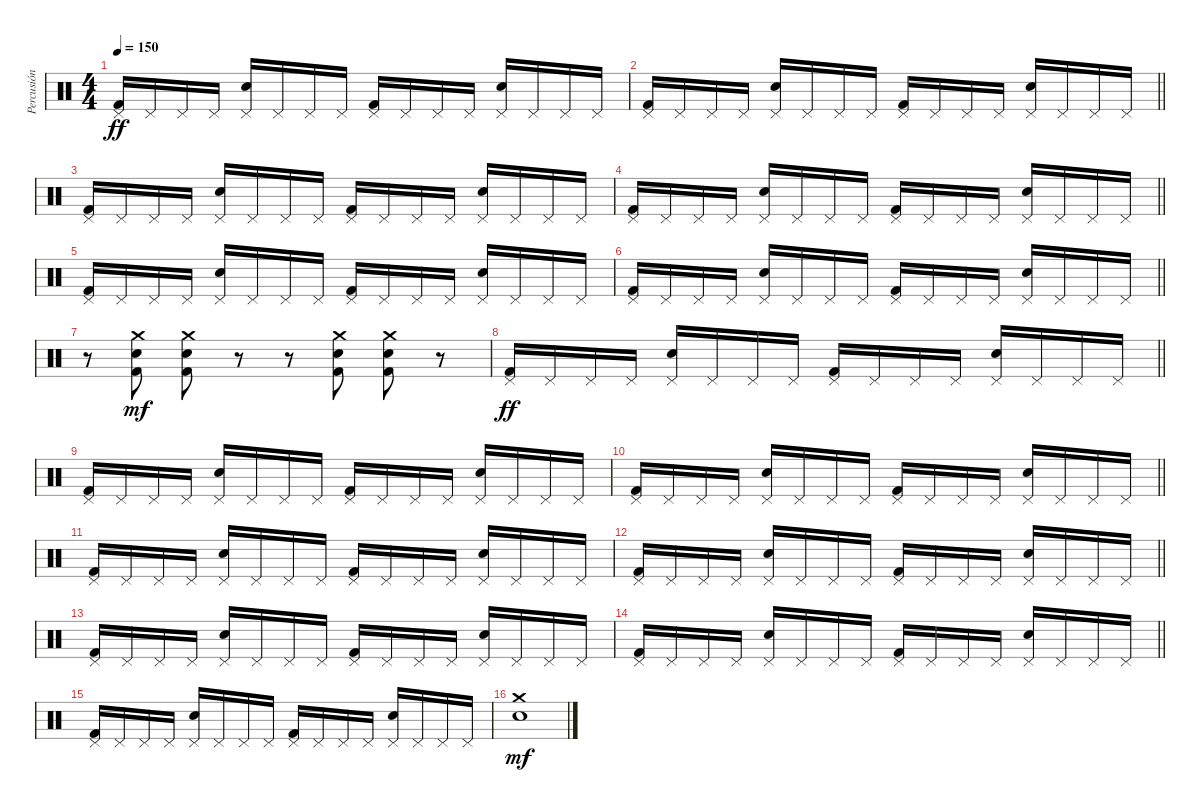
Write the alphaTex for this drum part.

\track ("Percusión" "Percusión") {instrument percussion}
\staff {score}
\articulation defaults
\ts (4 4)
\tempo 150
\clef neutral
\ks c
("Pedal Hi-Hat (hit)" "Kick (hit) 2").16{dy ff} "Pedal Hi-Hat (hit)".16 "Pedal Hi-Hat (hit)".16 "Pedal Hi-Hat (hit)".16 ("Pedal Hi-Hat (hit)" "Electric Snare (hit)").16 "Pedal Hi-Hat (hit)".16 "Pedal Hi-Hat (hit)".16 "Pedal Hi-Hat (hit)".16 ("Pedal Hi-Hat (hit)" "Kick (hit) 2").16 "Pedal Hi-Hat (hit)".16 "Pedal Hi-Hat (hit)".16 "Pedal Hi-Hat (hit)".16 ("Pedal Hi-Hat (hit)" "Electric Snare (hit)").16 "Pedal Hi-Hat (hit)".16 "Pedal Hi-Hat (hit)".16 "Pedal Hi-Hat (hit)".16 |
\barLineRight lightlight
("Pedal Hi-Hat (hit)" "Kick (hit) 2").16 "Pedal Hi-Hat (hit)".16 "Pedal Hi-Hat (hit)".16 "Pedal Hi-Hat (hit)".16 ("Pedal Hi-Hat (hit)" "Electric Snare (hit)").16 "Pedal Hi-Hat (hit)".16 "Pedal Hi-Hat (hit)".16 "Pedal Hi-Hat (hit)".16 ("Pedal Hi-Hat (hit)" "Kick (hit) 2").16 "Pedal Hi-Hat (hit)".16 "Pedal Hi-Hat (hit)".16 "Pedal Hi-Hat (hit)".16 ("Pedal Hi-Hat (hit)" "Electric Snare (hit)").16 "Pedal Hi-Hat (hit)".16 "Pedal Hi-Hat (hit)".16 "Pedal Hi-Hat (hit)".16 |
("Pedal Hi-Hat (hit)" "Kick (hit) 2").16 "Pedal Hi-Hat (hit)".16 "Pedal Hi-Hat (hit)".16 "Pedal Hi-Hat (hit)".16 ("Pedal Hi-Hat (hit)" "Electric Snare (hit)").16 "Pedal Hi-Hat (hit)".16 "Pedal Hi-Hat (hit)".16 "Pedal Hi-Hat (hit)".16 ("Pedal Hi-Hat (hit)" "Kick (hit) 2").16 "Pedal Hi-Hat (hit)".16 "Pedal Hi-Hat (hit)".16 "Pedal Hi-Hat (hit)".16 ("Pedal Hi-Hat (hit)" "Electric Snare (hit)").16 "Pedal Hi-Hat (hit)".16 "Pedal Hi-Hat (hit)".16 "Pedal Hi-Hat (hit)".16 |
\barLineRight lightlight
("Pedal Hi-Hat (hit)" "Kick (hit) 2").16 "Pedal Hi-Hat (hit)".16 "Pedal Hi-Hat (hit)".16 "Pedal Hi-Hat (hit)".16 ("Pedal Hi-Hat (hit)" "Electric Snare (hit)").16 "Pedal Hi-Hat (hit)".16 "Pedal Hi-Hat (hit)".16 "Pedal Hi-Hat (hit)".16 ("Pedal Hi-Hat (hit)" "Kick (hit) 2").16 "Pedal Hi-Hat (hit)".16 "Pedal Hi-Hat (hit)".16 "Pedal Hi-Hat (hit)".16 ("Pedal Hi-Hat (hit)" "Electric Snare (hit)").16 "Pedal Hi-Hat (hit)".16 "Pedal Hi-Hat (hit)".16 "Pedal Hi-Hat (hit)".16 |
("Pedal Hi-Hat (hit)" "Kick (hit) 2").16 "Pedal Hi-Hat (hit)".16 "Pedal Hi-Hat (hit)".16 "Pedal Hi-Hat (hit)".16 ("Pedal Hi-Hat (hit)" "Electric Snare (hit)").16 "Pedal Hi-Hat (hit)".16 "Pedal Hi-Hat (hit)".16 "Pedal Hi-Hat (hit)".16 ("Pedal Hi-Hat (hit)" "Kick (hit) 2").16 "Pedal Hi-Hat (hit)".16 "Pedal Hi-Hat (hit)".16 "Pedal Hi-Hat (hit)".16 ("Pedal Hi-Hat (hit)" "Electric Snare (hit)").16 "Pedal Hi-Hat (hit)".16 "Pedal Hi-Hat (hit)".16 "Pedal Hi-Hat (hit)".16 |
\barLineRight lightlight
("Pedal Hi-Hat (hit)" "Kick (hit) 2").16 "Pedal Hi-Hat (hit)".16 "Pedal Hi-Hat (hit)".16 "Pedal Hi-Hat (hit)".16 ("Pedal Hi-Hat (hit)" "Electric Snare (hit)").16 "Pedal Hi-Hat (hit)".16 "Pedal Hi-Hat (hit)".16 "Pedal Hi-Hat (hit)".16 ("Pedal Hi-Hat (hit)" "Kick (hit) 2").16 "Pedal Hi-Hat (hit)".16 "Pedal Hi-Hat (hit)".16 "Pedal Hi-Hat (hit)".16 ("Pedal Hi-Hat (hit)" "Electric Snare (hit)").16 "Pedal Hi-Hat (hit)".16 "Pedal Hi-Hat (hit)".16 "Pedal Hi-Hat (hit)".16 |
r.8 ("Crash medium (hit)" "Electric Snare (hit)" "Kick (hit) 2").8{dy mf} ("Crash medium (hit)" "Electric Snare (hit)" "Kick (hit) 2").8 r.8 r.8 ("Crash medium (hit)" "Electric Snare (hit)" "Kick (hit) 2").8 ("Crash medium (hit)" "Electric Snare (hit)" "Kick (hit) 2").8 r.8 |
\barLineRight lightlight
("Pedal Hi-Hat (hit)" "Kick (hit) 2").16{dy ff} "Pedal Hi-Hat (hit)".16 "Pedal Hi-Hat (hit)".16 "Pedal Hi-Hat (hit)".16 ("Pedal Hi-Hat (hit)" "Electric Snare (hit)").16 "Pedal Hi-Hat (hit)".16 "Pedal Hi-Hat (hit)".16 "Pedal Hi-Hat (hit)".16 ("Pedal Hi-Hat (hit)" "Kick (hit) 2").16 "Pedal Hi-Hat (hit)".16 "Pedal Hi-Hat (hit)".16 "Pedal Hi-Hat (hit)".16 ("Pedal Hi-Hat (hit)" "Electric Snare (hit)").16 "Pedal Hi-Hat (hit)".16 "Pedal Hi-Hat (hit)".16 "Pedal Hi-Hat (hit)".16 |
("Pedal Hi-Hat (hit)" "Kick (hit) 2").16 "Pedal Hi-Hat (hit)".16 "Pedal Hi-Hat (hit)".16 "Pedal Hi-Hat (hit)".16 ("Pedal Hi-Hat (hit)" "Electric Snare (hit)").16 "Pedal Hi-Hat (hit)".16 "Pedal Hi-Hat (hit)".16 "Pedal Hi-Hat (hit)".16 ("Pedal Hi-Hat (hit)" "Kick (hit) 2").16 "Pedal Hi-Hat (hit)".16 "Pedal Hi-Hat (hit)".16 "Pedal Hi-Hat (hit)".16 ("Pedal Hi-Hat (hit)" "Electric Snare (hit)").16 "Pedal Hi-Hat (hit)".16 "Pedal Hi-Hat (hit)".16 "Pedal Hi-Hat (hit)".16 |
\barLineRight lightlight
("Pedal Hi-Hat (hit)" "Kick (hit) 2").16 "Pedal Hi-Hat (hit)".16 "Pedal Hi-Hat (hit)".16 "Pedal Hi-Hat (hit)".16 ("Pedal Hi-Hat (hit)" "Electric Snare (hit)").16 "Pedal Hi-Hat (hit)".16 "Pedal Hi-Hat (hit)".16 "Pedal Hi-Hat (hit)".16 ("Pedal Hi-Hat (hit)" "Kick (hit) 2").16 "Pedal Hi-Hat (hit)".16 "Pedal Hi-Hat (hit)".16 "Pedal Hi-Hat (hit)".16 ("Pedal Hi-Hat (hit)" "Electric Snare (hit)").16 "Pedal Hi-Hat (hit)".16 "Pedal Hi-Hat (hit)".16 "Pedal Hi-Hat (hit)".16 |
("Pedal Hi-Hat (hit)" "Kick (hit) 2").16 "Pedal Hi-Hat (hit)".16 "Pedal Hi-Hat (hit)".16 "Pedal Hi-Hat (hit)".16 ("Pedal Hi-Hat (hit)" "Electric Snare (hit)").16 "Pedal Hi-Hat (hit)".16 "Pedal Hi-Hat (hit)".16 "Pedal Hi-Hat (hit)".16 ("Pedal Hi-Hat (hit)" "Kick (hit) 2").16 "Pedal Hi-Hat (hit)".16 "Pedal Hi-Hat (hit)".16 "Pedal Hi-Hat (hit)".16 ("Pedal Hi-Hat (hit)" "Electric Snare (hit)").16 "Pedal Hi-Hat (hit)".16 "Pedal Hi-Hat (hit)".16 "Pedal Hi-Hat (hit)".16 |
\barLineRight lightlight
("Pedal Hi-Hat (hit)" "Kick (hit) 2").16 "Pedal Hi-Hat (hit)".16 "Pedal Hi-Hat (hit)".16 "Pedal Hi-Hat (hit)".16 ("Pedal Hi-Hat (hit)" "Electric Snare (hit)").16 "Pedal Hi-Hat (hit)".16 "Pedal Hi-Hat (hit)".16 "Pedal Hi-Hat (hit)".16 ("Pedal Hi-Hat (hit)" "Kick (hit) 2").16 "Pedal Hi-Hat (hit)".16 "Pedal Hi-Hat (hit)".16 "Pedal Hi-Hat (hit)".16 ("Pedal Hi-Hat (hit)" "Electric Snare (hit)").16 "Pedal Hi-Hat (hit)".16 "Pedal Hi-Hat (hit)".16 "Pedal Hi-Hat (hit)".16 |
("Pedal Hi-Hat (hit)" "Kick (hit) 2").16 "Pedal Hi-Hat (hit)".16 "Pedal Hi-Hat (hit)".16 "Pedal Hi-Hat (hit)".16 ("Pedal Hi-Hat (hit)" "Electric Snare (hit)").16 "Pedal Hi-Hat (hit)".16 "Pedal Hi-Hat (hit)".16 "Pedal Hi-Hat (hit)".16 ("Pedal Hi-Hat (hit)" "Kick (hit) 2").16 "Pedal Hi-Hat (hit)".16 "Pedal Hi-Hat (hit)".16 "Pedal Hi-Hat (hit)".16 ("Pedal Hi-Hat (hit)" "Electric Snare (hit)").16 "Pedal Hi-Hat (hit)".16 "Pedal Hi-Hat (hit)".16 "Pedal Hi-Hat (hit)".16 |
\barLineRight lightlight
("Pedal Hi-Hat (hit)" "Kick (hit) 2").16 "Pedal Hi-Hat (hit)".16 "Pedal Hi-Hat (hit)".16 "Pedal Hi-Hat (hit)".16 ("Pedal Hi-Hat (hit)" "Electric Snare (hit)").16 "Pedal Hi-Hat (hit)".16 "Pedal Hi-Hat (hit)".16 "Pedal Hi-Hat (hit)".16 ("Pedal Hi-Hat (hit)" "Kick (hit) 2").16 "Pedal Hi-Hat (hit)".16 "Pedal Hi-Hat (hit)".16 "Pedal Hi-Hat (hit)".16 ("Pedal Hi-Hat (hit)" "Electric Snare (hit)").16 "Pedal Hi-Hat (hit)".16 "Pedal Hi-Hat (hit)".16 "Pedal Hi-Hat (hit)".16 |
("Pedal Hi-Hat (hit)" "Kick (hit) 2").16 "Pedal Hi-Hat (hit)".16 "Pedal Hi-Hat (hit)".16 "Pedal Hi-Hat (hit)".16 ("Pedal Hi-Hat (hit)" "Electric Snare (hit)").16 "Pedal Hi-Hat (hit)".16 "Pedal Hi-Hat (hit)".16 "Pedal Hi-Hat (hit)".16 ("Pedal Hi-Hat (hit)" "Kick (hit) 2").16 "Pedal Hi-Hat (hit)".16 "Pedal Hi-Hat (hit)".16 "Pedal Hi-Hat (hit)".16 ("Pedal Hi-Hat (hit)" "Electric Snare (hit)").16 "Pedal Hi-Hat (hit)".16 "Pedal Hi-Hat (hit)".16 "Pedal Hi-Hat (hit)".16 |
("Electric Snare (hit)" "Crash medium (hit)").1{dy mf}
